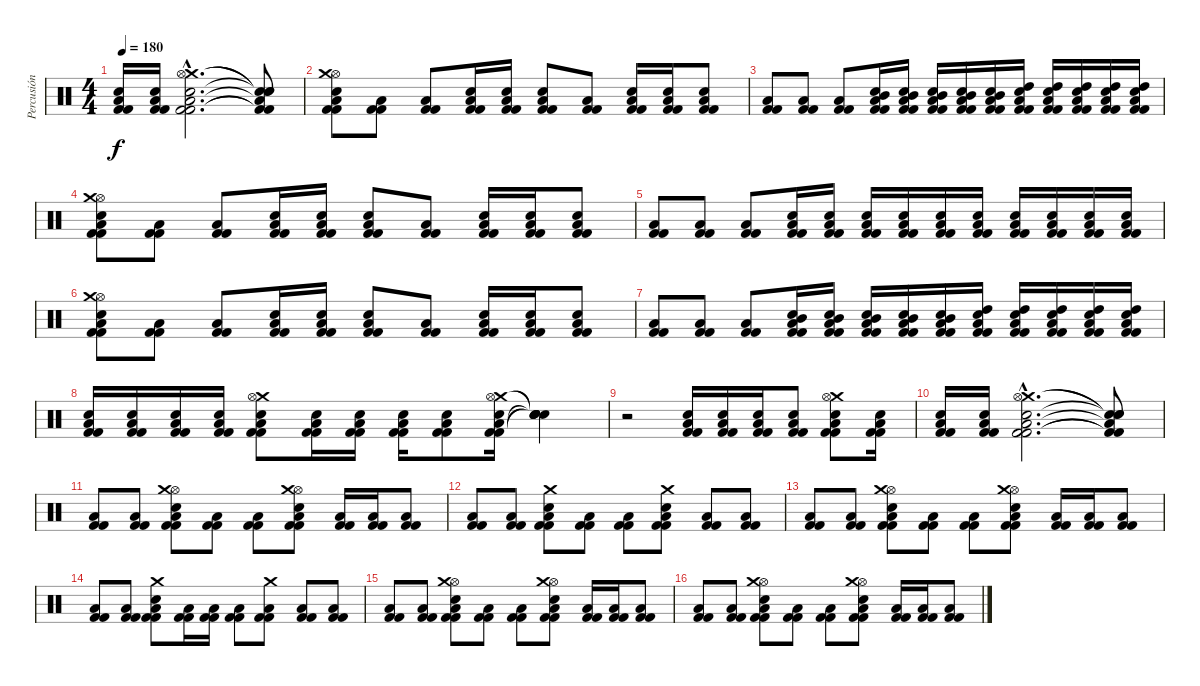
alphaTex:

\track ("Percusión" "Percusión") {instrument percussion}
\staff {score}
\articulation defaults
\ts (4 4)
\tempo 180
\clef neutral
\ks c
("Kick (hit) 2" "Kick (hit) 2" "Low Floor Tom (hit)" "Snare (hit) 2").16{dy f} ("Kick (hit) 2" "Kick (hit) 2" "Low Floor Tom (hit)" "Snare (hit) 2").16 ("Crash medium (hit)"{hac} "Hi-Hat (open)"{hac} "Kick (hit) 2"{hac} "Kick (hit) 2"{hac} "Low Floor Tom (hit)"{hac} "Snare (hit) 2"{hac}).2{d} ("Snare (hit)"{t} "Snare (hit)"{t} "Kick (hit) 2"{t} "Kick (hit) 2"{t} "Low Floor Tom (hit)"{t} "Snare (hit)"{t}).8 |
("Hi-Hat (open)" "Crash medium (hit)" "Kick (hit) 2" "Kick (hit) 2" "Snare (hit) 2" "Low Floor Tom (hit)").8 ("Kick (hit) 2" "Kick (hit) 2" "Low Floor Tom (hit)").8 ("Kick (hit) 2" "Kick (hit) 2" "Low Floor Tom (hit)").8 ("Kick (hit) 2" "Kick (hit) 2" "Low Floor Tom (hit)" "Snare (hit) 2").16 ("Kick (hit) 2" "Kick (hit) 2" "Low Floor Tom (hit)" "Snare (hit) 2").16 ("Kick (hit) 2" "Kick (hit) 2" "Low Floor Tom (hit)" "Snare (hit) 2").8 ("Kick (hit) 2" "Kick (hit) 2" "Low Floor Tom (hit)").8 ("Kick (hit) 2" "Kick (hit) 2" "Low Floor Tom (hit)" "Snare (hit) 2").16 ("Kick (hit) 2" "Kick (hit) 2" "Low Floor Tom (hit)" "Snare (hit) 2").16 ("Kick (hit) 2" "Kick (hit) 2" "Low Floor Tom (hit)" "Snare (hit) 2").8 |
("Kick (hit) 2" "Kick (hit) 2" "Low Floor Tom (hit)").8 ("Kick (hit) 2" "Kick (hit) 2" "Low Floor Tom (hit)").8 ("Kick (hit) 2" "Kick (hit) 2" "Low Floor Tom (hit)").8 ("Mid Tom (hit)" "Kick (hit) 2" "Kick (hit) 2" "Low Floor Tom (hit)" "Snare (hit) 2").16 ("Mid Tom (hit)" "Kick (hit) 2" "Kick (hit) 2" "Low Floor Tom (hit)" "Snare (hit) 2").16 ("Mid Tom (hit)" "Kick (hit) 2" "Kick (hit) 2" "Low Floor Tom (hit)" "Snare (hit) 2").16 ("Mid Tom (hit)" "Kick (hit) 2" "Kick (hit) 2" "Low Floor Tom (hit)" "Snare (hit) 2").16 ("Mid Tom (hit)" "Kick (hit) 2" "Kick (hit) 2" "Low Floor Tom (hit)" "Snare (hit) 2").16 ("High Tom (hit)" "Kick (hit) 2" "Kick (hit) 2" "Low Floor Tom (hit)" "Snare (hit) 2").16 ("High Tom (hit)" "Kick (hit) 2" "Kick (hit) 2" "Low Floor Tom (hit)" "Snare (hit) 2").16 ("High Tom (hit)" "Kick (hit) 2" "Kick (hit) 2" "Low Floor Tom (hit)" "Snare (hit) 2").16 ("High Tom (hit)" "Kick (hit) 2" "Kick (hit) 2" "Low Floor Tom (hit)" "Snare (hit) 2").16 ("High Tom (hit)" "Kick (hit) 2" "Kick (hit) 2" "Low Floor Tom (hit)" "Snare (hit) 2").16 |
("Hi-Hat (open)" "Crash medium (hit)" "Kick (hit) 2" "Kick (hit) 2" "Snare (hit) 2" "Low Floor Tom (hit)").8 ("Kick (hit) 2" "Kick (hit) 2" "Low Floor Tom (hit)").8 ("Kick (hit) 2" "Kick (hit) 2" "Low Floor Tom (hit)").8 ("Kick (hit) 2" "Kick (hit) 2" "Low Floor Tom (hit)" "Snare (hit) 2").16 ("Kick (hit) 2" "Kick (hit) 2" "Low Floor Tom (hit)" "Snare (hit) 2").16 ("Kick (hit) 2" "Kick (hit) 2" "Low Floor Tom (hit)" "Snare (hit) 2").8 ("Kick (hit) 2" "Kick (hit) 2" "Low Floor Tom (hit)").8 ("Kick (hit) 2" "Kick (hit) 2" "Low Floor Tom (hit)" "Snare (hit) 2").16 ("Kick (hit) 2" "Kick (hit) 2" "Low Floor Tom (hit)" "Snare (hit) 2").16 ("Kick (hit) 2" "Kick (hit) 2" "Low Floor Tom (hit)" "Snare (hit) 2").8 |
("Kick (hit) 2" "Kick (hit) 2" "Low Floor Tom (hit)").8 ("Kick (hit) 2" "Kick (hit) 2" "Low Floor Tom (hit)").8 ("Kick (hit) 2" "Kick (hit) 2" "Low Floor Tom (hit)").8 ("Kick (hit) 2" "Kick (hit) 2" "Low Floor Tom (hit)" "Snare (hit) 2").16 ("Kick (hit) 2" "Kick (hit) 2" "Low Floor Tom (hit)" "Snare (hit) 2").16 ("Kick (hit) 2" "Kick (hit) 2" "Low Floor Tom (hit)" "Snare (hit) 2").16 ("Kick (hit) 2" "Kick (hit) 2" "Low Floor Tom (hit)" "Snare (hit) 2").16 ("Kick (hit) 2" "Kick (hit) 2" "Low Floor Tom (hit)" "Snare (hit) 2").16 ("Kick (hit) 2" "Kick (hit) 2" "Low Floor Tom (hit)" "Snare (hit) 2").16 ("Kick (hit) 2" "Kick (hit) 2" "Low Floor Tom (hit)" "Snare (hit) 2").16 ("Kick (hit) 2" "Kick (hit) 2" "Low Floor Tom (hit)" "Snare (hit) 2").16 ("Kick (hit) 2" "Kick (hit) 2" "Low Floor Tom (hit)" "Snare (hit) 2").16 ("Kick (hit) 2" "Kick (hit) 2" "Low Floor Tom (hit)" "Snare (hit) 2").16 |
("Hi-Hat (open)" "Crash medium (hit)" "Kick (hit) 2" "Kick (hit) 2" "Snare (hit) 2" "Low Floor Tom (hit)").8 ("Kick (hit) 2" "Kick (hit) 2" "Low Floor Tom (hit)").8 ("Kick (hit) 2" "Kick (hit) 2" "Low Floor Tom (hit)").8 ("Kick (hit) 2" "Kick (hit) 2" "Low Floor Tom (hit)" "Snare (hit) 2").16 ("Kick (hit) 2" "Kick (hit) 2" "Low Floor Tom (hit)" "Snare (hit) 2").16 ("Kick (hit) 2" "Kick (hit) 2" "Low Floor Tom (hit)" "Snare (hit) 2").8 ("Kick (hit) 2" "Kick (hit) 2" "Low Floor Tom (hit)").8 ("Kick (hit) 2" "Kick (hit) 2" "Low Floor Tom (hit)" "Snare (hit) 2").16 ("Kick (hit) 2" "Kick (hit) 2" "Low Floor Tom (hit)" "Snare (hit) 2").16 ("Kick (hit) 2" "Kick (hit) 2" "Low Floor Tom (hit)" "Snare (hit) 2").8 |
("Kick (hit) 2" "Kick (hit) 2" "Low Floor Tom (hit)").8 ("Kick (hit) 2" "Kick (hit) 2" "Low Floor Tom (hit)").8 ("Kick (hit) 2" "Kick (hit) 2" "Low Floor Tom (hit)").8 ("Mid Tom (hit)" "Kick (hit) 2" "Kick (hit) 2" "Low Floor Tom (hit)" "Snare (hit) 2").16 ("Mid Tom (hit)" "Kick (hit) 2" "Kick (hit) 2" "Low Floor Tom (hit)" "Snare (hit) 2").16 ("Mid Tom (hit)" "Kick (hit) 2" "Kick (hit) 2" "Low Floor Tom (hit)" "Snare (hit) 2").16 ("Mid Tom (hit)" "Kick (hit) 2" "Kick (hit) 2" "Low Floor Tom (hit)" "Snare (hit) 2").16 ("Mid Tom (hit)" "Kick (hit) 2" "Kick (hit) 2" "Low Floor Tom (hit)" "Snare (hit) 2").16 ("High Tom (hit)" "Kick (hit) 2" "Kick (hit) 2" "Low Floor Tom (hit)" "Snare (hit) 2").16 ("High Tom (hit)" "Kick (hit) 2" "Kick (hit) 2" "Low Floor Tom (hit)" "Snare (hit) 2").16 ("High Tom (hit)" "Kick (hit) 2" "Kick (hit) 2" "Low Floor Tom (hit)" "Snare (hit) 2").16 ("High Tom (hit)" "Kick (hit) 2" "Kick (hit) 2" "Low Floor Tom (hit)" "Snare (hit) 2").16 ("High Tom (hit)" "Kick (hit) 2" "Kick (hit) 2" "Low Floor Tom (hit)" "Snare (hit) 2").16 |
("Kick (hit) 2" "Kick (hit) 2" "Low Floor Tom (hit)" "Snare (hit) 2").16 ("Kick (hit) 2" "Kick (hit) 2" "Low Floor Tom (hit)" "Snare (hit) 2").16 ("Kick (hit) 2" "Kick (hit) 2" "Low Floor Tom (hit)" "Snare (hit) 2").16 ("Kick (hit) 2" "Kick (hit) 2" "Low Floor Tom (hit)" "Snare (hit) 2").16 ("Crash medium (hit)" "Hi-Hat (open)" "Kick (hit) 2" "Kick (hit) 2" "Low Floor Tom (hit)" "Snare (hit) 2").8 ("Kick (hit) 2" "Kick (hit) 2" "Low Floor Tom (hit)" "Snare (hit) 2").16 ("Kick (hit) 2" "Kick (hit) 2" "Low Floor Tom (hit)" "Snare (hit) 2").16 ("Kick (hit) 2" "Kick (hit) 2" "Low Floor Tom (hit)" "Snare (hit) 2").16 ("Kick (hit) 2" "Kick (hit) 2" "Low Floor Tom (hit)" "Snare (hit) 2").8 ("Crash medium (hit)" "Hi-Hat (open)" "Kick (hit) 2" "Kick (hit) 2" "Low Floor Tom (hit)" "Snare (hit) 2").16 ("Snare (hit)"{t} "Snare (hit)"{t} "Snare (hit)"{t} "Snare (hit)"{t} "Snare (hit)"{t}).4 |
r.2 ("Kick (hit) 2" "Kick (hit) 2" "Low Floor Tom (hit)" "Snare (hit) 2").16 ("Kick (hit) 2" "Kick (hit) 2" "Low Floor Tom (hit)" "Snare (hit) 2").16 ("Kick (hit) 2" "Kick (hit) 2" "Low Floor Tom (hit)" "Snare (hit) 2").16 ("Kick (hit) 2" "Kick (hit) 2" "Low Floor Tom (hit)" "Snare (hit) 2").8 ("Crash medium (hit)" "Hi-Hat (open)" "Kick (hit) 2" "Kick (hit) 2" "Low Floor Tom (hit)" "Snare (hit) 2").8 ("Kick (hit) 2" "Kick (hit) 2" "Low Floor Tom (hit)" "Snare (hit) 2").16 |
("Kick (hit) 2" "Kick (hit) 2" "Low Floor Tom (hit)" "Snare (hit) 2").16 ("Kick (hit) 2" "Kick (hit) 2" "Low Floor Tom (hit)" "Snare (hit) 2").16 ("Crash medium (hit)"{hac} "Hi-Hat (open)"{hac} "Kick (hit) 2"{hac} "Kick (hit) 2"{hac} "Low Floor Tom (hit)"{hac} "Snare (hit) 2"{hac}).2{d} ("Snare (hit)"{t} "Snare (hit)"{t} "Kick (hit) 2"{t} "Kick (hit) 2"{t} "Low Floor Tom (hit)"{t} "Snare (hit)"{t}).8 |
("Kick (hit) 2" "Kick (hit) 2" "Low Floor Tom (hit)").8 ("Kick (hit) 2" "Kick (hit) 2" "Low Floor Tom (hit)").8 ("Hi-Hat (open)" "Crash medium (hit)" "Kick (hit) 2" "Kick (hit) 2" "Low Floor Tom (hit)" "Snare (hit) 2").8 ("Kick (hit) 2" "Kick (hit) 2" "Low Floor Tom (hit)").8 ("Kick (hit) 2" "Kick (hit) 2" "Low Floor Tom (hit)").8 ("Hi-Hat (open)" "Crash medium (hit)" "Kick (hit) 2" "Kick (hit) 2" "Low Floor Tom (hit)" "Snare (hit) 2").8 ("Kick (hit) 2" "Kick (hit) 2" "Low Floor Tom (hit)").16 ("Kick (hit) 2" "Kick (hit) 2" "Low Floor Tom (hit)").16 ("Kick (hit) 2" "Kick (hit) 2" "Low Floor Tom (hit)").8 |
("Kick (hit) 2" "Kick (hit) 2" "Low Floor Tom (hit)").8 ("Kick (hit) 2" "Kick (hit) 2" "Low Floor Tom (hit)").8 ("Crash medium (hit)" "Kick (hit) 2" "Kick (hit) 2" "Low Floor Tom (hit)" "Snare (hit) 2").8 ("Kick (hit) 2" "Kick (hit) 2" "Low Floor Tom (hit)").8 ("Kick (hit) 2" "Kick (hit) 2" "Low Floor Tom (hit)").8 ("Crash medium (hit)" "Kick (hit) 2" "Kick (hit) 2" "Low Floor Tom (hit)" "Snare (hit) 2").8 ("Kick (hit) 2" "Kick (hit) 2" "Low Floor Tom (hit)").8 ("Kick (hit) 2" "Kick (hit) 2" "Low Floor Tom (hit)").8 |
("Kick (hit) 2" "Kick (hit) 2" "Low Floor Tom (hit)").8 ("Kick (hit) 2" "Kick (hit) 2" "Low Floor Tom (hit)").8 ("Hi-Hat (open)" "Crash medium (hit)" "Kick (hit) 2" "Kick (hit) 2" "Low Floor Tom (hit)" "Snare (hit) 2").8 ("Kick (hit) 2" "Kick (hit) 2" "Low Floor Tom (hit)").8 ("Kick (hit) 2" "Kick (hit) 2" "Low Floor Tom (hit)").8 ("Hi-Hat (open)" "Crash medium (hit)" "Kick (hit) 2" "Kick (hit) 2" "Low Floor Tom (hit)" "Snare (hit) 2").8 ("Kick (hit) 2" "Kick (hit) 2" "Low Floor Tom (hit)").16 ("Kick (hit) 2" "Kick (hit) 2" "Low Floor Tom (hit)").16 ("Kick (hit) 2" "Kick (hit) 2" "Low Floor Tom (hit)").8 |
("Kick (hit) 2" "Kick (hit) 2" "Low Floor Tom (hit)").8 ("Kick (hit) 2" "Kick (hit) 2" "Low Floor Tom (hit)").8 ("Crash medium (hit)" "Kick (hit) 2" "Kick (hit) 2" "Low Floor Tom (hit)" "Snare (hit) 2").8 ("Kick (hit) 2" "Kick (hit) 2" "Low Floor Tom (hit)").16 ("Kick (hit) 2" "Kick (hit) 2" "Low Floor Tom (hit)").16 ("Kick (hit) 2" "Kick (hit) 2" "Low Floor Tom (hit)").8 ("Crash medium (hit)" "Kick (hit) 2" "Kick (hit) 2" "Low Floor Tom (hit)").8 ("Kick (hit) 2" "Kick (hit) 2" "Low Floor Tom (hit)").8 ("Kick (hit) 2" "Kick (hit) 2" "Low Floor Tom (hit)").8 |
("Kick (hit) 2" "Kick (hit) 2" "Low Floor Tom (hit)").8 ("Kick (hit) 2" "Kick (hit) 2" "Low Floor Tom (hit)").8 ("Hi-Hat (open)" "Crash medium (hit)" "Kick (hit) 2" "Kick (hit) 2" "Low Floor Tom (hit)" "Snare (hit) 2").8 ("Kick (hit) 2" "Kick (hit) 2" "Low Floor Tom (hit)").8 ("Kick (hit) 2" "Kick (hit) 2" "Low Floor Tom (hit)").8 ("Hi-Hat (open)" "Crash medium (hit)" "Kick (hit) 2" "Kick (hit) 2" "Low Floor Tom (hit)" "Snare (hit) 2").8 ("Kick (hit) 2" "Kick (hit) 2" "Low Floor Tom (hit)").16 ("Kick (hit) 2" "Kick (hit) 2" "Low Floor Tom (hit)").16 ("Kick (hit) 2" "Kick (hit) 2" "Low Floor Tom (hit)").8 |
("Kick (hit) 2" "Kick (hit) 2" "Low Floor Tom (hit)").8 ("Kick (hit) 2" "Kick (hit) 2" "Low Floor Tom (hit)").8 ("Hi-Hat (open)" "Crash medium (hit)" "Kick (hit) 2" "Kick (hit) 2" "Low Floor Tom (hit)" "Snare (hit) 2").8 ("Kick (hit) 2" "Kick (hit) 2" "Low Floor Tom (hit)").8 ("Kick (hit) 2" "Kick (hit) 2" "Low Floor Tom (hit)").8 ("Hi-Hat (open)" "Crash medium (hit)" "Kick (hit) 2" "Kick (hit) 2" "Low Floor Tom (hit)" "Snare (hit) 2").8 ("Kick (hit) 2" "Kick (hit) 2" "Low Floor Tom (hit)").16 ("Kick (hit) 2" "Kick (hit) 2" "Low Floor Tom (hit)").16 ("Kick (hit) 2" "Kick (hit) 2" "Low Floor Tom (hit)").8
